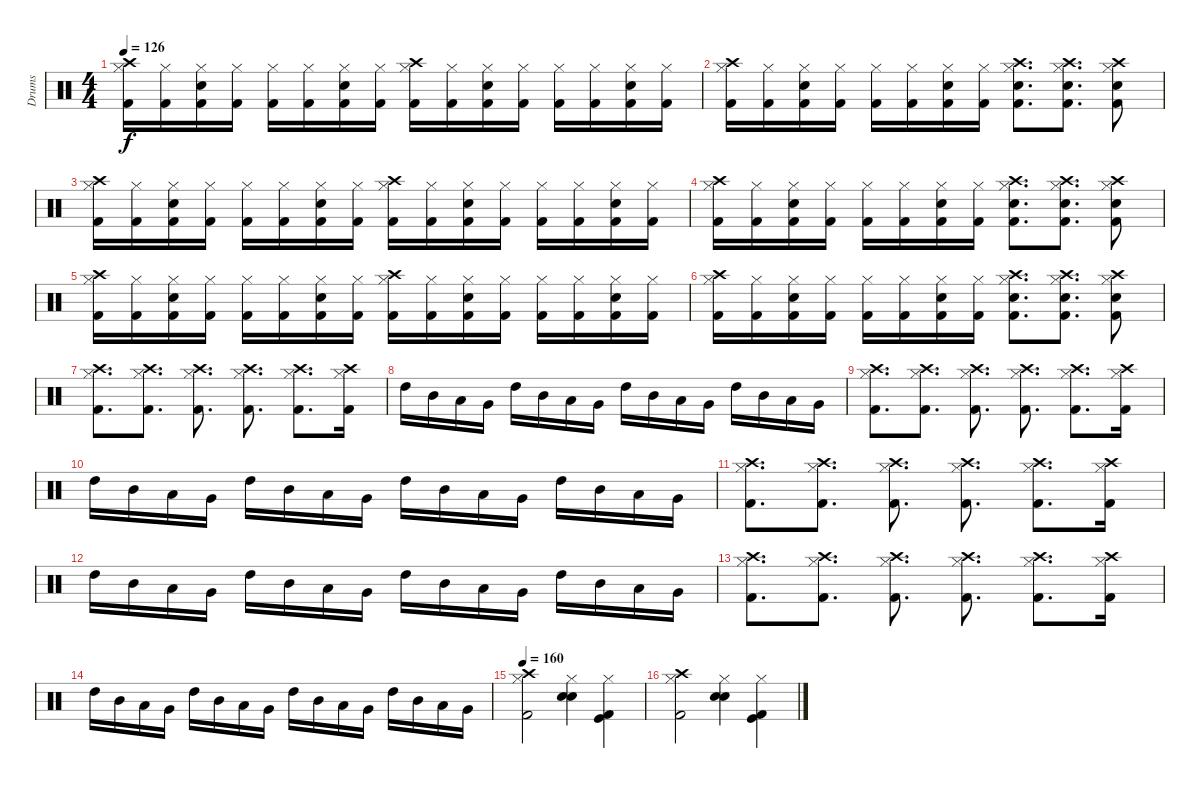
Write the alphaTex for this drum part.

\track ("Drums" "Drums") {instrument percussion}
\staff {score}
\articulation defaults
\ts (4 4)
\tempo 126
\clef neutral
\ks c
("Crash high (hit)" "Hi-Hat (closed)" "Kick (hit) 2").16{dy f} ("Hi-Hat (closed)" "Kick (hit) 2").16 ("Hi-Hat (closed)" "Kick (hit) 2" "Electric Snare (hit)").16 ("Hi-Hat (closed)" "Kick (hit) 2").16 ("Hi-Hat (closed)" "Kick (hit) 2").16 ("Hi-Hat (closed)" "Kick (hit) 2").16 ("Hi-Hat (closed)" "Kick (hit) 2" "Electric Snare (hit)").16 ("Hi-Hat (closed)" "Kick (hit) 2").16 ("Crash high (hit)" "Hi-Hat (closed)" "Kick (hit) 2").16 ("Hi-Hat (closed)" "Kick (hit) 2").16 ("Hi-Hat (closed)" "Kick (hit) 2" "Electric Snare (hit)").16 ("Hi-Hat (closed)" "Kick (hit) 2").16 ("Hi-Hat (closed)" "Kick (hit) 2").16 ("Hi-Hat (closed)" "Kick (hit) 2").16 ("Hi-Hat (closed)" "Kick (hit) 2" "Electric Snare (hit)").16 ("Hi-Hat (closed)" "Kick (hit) 2").16 |
("Crash high (hit)" "Hi-Hat (closed)" "Kick (hit) 2").16 ("Hi-Hat (closed)" "Kick (hit) 2").16 ("Hi-Hat (closed)" "Kick (hit) 2" "Electric Snare (hit)").16 ("Hi-Hat (closed)" "Kick (hit) 2").16 ("Hi-Hat (closed)" "Kick (hit) 2").16 ("Hi-Hat (closed)" "Kick (hit) 2").16 ("Hi-Hat (closed)" "Kick (hit) 2" "Electric Snare (hit)").16 ("Hi-Hat (closed)" "Kick (hit) 2").16 ("Crash high (hit)" "Hi-Hat (closed)" "Electric Snare (hit)" "Kick (hit) 2").8{d} ("Crash high (hit)" "Hi-Hat (closed)" "Electric Snare (hit)" "Kick (hit) 2").8{d} ("Crash high (hit)" "Hi-Hat (closed)" "Electric Snare (hit)" "Kick (hit) 2").8 |
("Crash high (hit)" "Hi-Hat (closed)" "Kick (hit) 2").16 ("Hi-Hat (closed)" "Kick (hit) 2").16 ("Hi-Hat (closed)" "Kick (hit) 2" "Electric Snare (hit)").16 ("Hi-Hat (closed)" "Kick (hit) 2").16 ("Hi-Hat (closed)" "Kick (hit) 2").16 ("Hi-Hat (closed)" "Kick (hit) 2").16 ("Hi-Hat (closed)" "Kick (hit) 2" "Electric Snare (hit)").16 ("Hi-Hat (closed)" "Kick (hit) 2").16 ("Crash high (hit)" "Hi-Hat (closed)" "Kick (hit) 2").16 ("Hi-Hat (closed)" "Kick (hit) 2").16 ("Hi-Hat (closed)" "Kick (hit) 2" "Electric Snare (hit)").16 ("Hi-Hat (closed)" "Kick (hit) 2").16 ("Hi-Hat (closed)" "Kick (hit) 2").16 ("Hi-Hat (closed)" "Kick (hit) 2").16 ("Hi-Hat (closed)" "Kick (hit) 2" "Electric Snare (hit)").16 ("Hi-Hat (closed)" "Kick (hit) 2").16 |
("Crash high (hit)" "Hi-Hat (closed)" "Kick (hit) 2").16 ("Hi-Hat (closed)" "Kick (hit) 2").16 ("Hi-Hat (closed)" "Kick (hit) 2" "Electric Snare (hit)").16 ("Hi-Hat (closed)" "Kick (hit) 2").16 ("Hi-Hat (closed)" "Kick (hit) 2").16 ("Hi-Hat (closed)" "Kick (hit) 2").16 ("Hi-Hat (closed)" "Kick (hit) 2" "Electric Snare (hit)").16 ("Hi-Hat (closed)" "Kick (hit) 2").16 ("Crash high (hit)" "Hi-Hat (closed)" "Electric Snare (hit)" "Kick (hit) 2").8{d} ("Crash high (hit)" "Hi-Hat (closed)" "Electric Snare (hit)" "Kick (hit) 2").8{d} ("Crash high (hit)" "Hi-Hat (closed)" "Electric Snare (hit)" "Kick (hit) 2").8 |
("Crash high (hit)" "Hi-Hat (closed)" "Kick (hit) 2").16 ("Hi-Hat (closed)" "Kick (hit) 2").16 ("Hi-Hat (closed)" "Kick (hit) 2" "Electric Snare (hit)").16 ("Hi-Hat (closed)" "Kick (hit) 2").16 ("Hi-Hat (closed)" "Kick (hit) 2").16 ("Hi-Hat (closed)" "Kick (hit) 2").16 ("Hi-Hat (closed)" "Kick (hit) 2" "Electric Snare (hit)").16 ("Hi-Hat (closed)" "Kick (hit) 2").16 ("Crash high (hit)" "Hi-Hat (closed)" "Kick (hit) 2").16 ("Hi-Hat (closed)" "Kick (hit) 2").16 ("Hi-Hat (closed)" "Kick (hit) 2" "Electric Snare (hit)").16 ("Hi-Hat (closed)" "Kick (hit) 2").16 ("Hi-Hat (closed)" "Kick (hit) 2").16 ("Hi-Hat (closed)" "Kick (hit) 2").16 ("Hi-Hat (closed)" "Kick (hit) 2" "Electric Snare (hit)").16 ("Hi-Hat (closed)" "Kick (hit) 2").16 |
("Crash high (hit)" "Hi-Hat (closed)" "Kick (hit) 2").16 ("Hi-Hat (closed)" "Kick (hit) 2").16 ("Hi-Hat (closed)" "Kick (hit) 2" "Electric Snare (hit)").16 ("Hi-Hat (closed)" "Kick (hit) 2").16 ("Hi-Hat (closed)" "Kick (hit) 2").16 ("Hi-Hat (closed)" "Kick (hit) 2").16 ("Hi-Hat (closed)" "Kick (hit) 2" "Electric Snare (hit)").16 ("Hi-Hat (closed)" "Kick (hit) 2").16 ("Crash high (hit)" "Hi-Hat (closed)" "Electric Snare (hit)" "Kick (hit) 2").8{d} ("Crash high (hit)" "Hi-Hat (closed)" "Electric Snare (hit)" "Kick (hit) 2").8{d} ("Crash high (hit)" "Hi-Hat (closed)" "Electric Snare (hit)" "Kick (hit) 2").8 |
("Crash high (hit)" "Hi-Hat (closed)" "Kick (hit) 2").8{d} ("Crash high (hit)" "Hi-Hat (closed)" "Kick (hit) 2").8{d} ("Crash high (hit)" "Hi-Hat (closed)" "Kick (hit) 2").8{d} ("Crash high (hit)" "Hi-Hat (closed)" "Kick (hit) 2").8{d} ("Crash high (hit)" "Hi-Hat (closed)" "Kick (hit) 2").8{d} ("Crash high (hit)" "Hi-Hat (closed)" "Kick (hit) 2").16 |
"High Tom (hit)".16 "Mid Tom (hit)".16 "Low Tom (hit)".16 "Very Low Tom (hit)".16 "High Tom (hit)".16 "Mid Tom (hit)".16 "Low Tom (hit)".16 "Very Low Tom (hit)".16 "High Tom (hit)".16 "Mid Tom (hit)".16 "Low Tom (hit)".16 "Very Low Tom (hit)".16 "High Tom (hit)".16 "Mid Tom (hit)".16 "Low Tom (hit)".16 "Very Low Tom (hit)".16 |
("Crash high (hit)" "Hi-Hat (closed)" "Kick (hit) 2").8{d} ("Crash high (hit)" "Hi-Hat (closed)" "Kick (hit) 2").8{d} ("Crash high (hit)" "Hi-Hat (closed)" "Kick (hit) 2").8{d} ("Crash high (hit)" "Hi-Hat (closed)" "Kick (hit) 2").8{d} ("Crash high (hit)" "Hi-Hat (closed)" "Kick (hit) 2").8{d} ("Crash high (hit)" "Hi-Hat (closed)" "Kick (hit) 2").16 |
"High Tom (hit)".16 "Mid Tom (hit)".16 "Low Tom (hit)".16 "Very Low Tom (hit)".16 "High Tom (hit)".16 "Mid Tom (hit)".16 "Low Tom (hit)".16 "Very Low Tom (hit)".16 "High Tom (hit)".16 "Mid Tom (hit)".16 "Low Tom (hit)".16 "Very Low Tom (hit)".16 "High Tom (hit)".16 "Mid Tom (hit)".16 "Low Tom (hit)".16 "Very Low Tom (hit)".16 |
("Crash high (hit)" "Hi-Hat (closed)" "Kick (hit) 2").8{d} ("Crash high (hit)" "Hi-Hat (closed)" "Kick (hit) 2").8{d} ("Crash high (hit)" "Hi-Hat (closed)" "Kick (hit) 2").8{d} ("Crash high (hit)" "Hi-Hat (closed)" "Kick (hit) 2").8{d} ("Crash high (hit)" "Hi-Hat (closed)" "Kick (hit) 2").8{d} ("Crash high (hit)" "Hi-Hat (closed)" "Kick (hit) 2").16 |
"High Tom (hit)".16 "Mid Tom (hit)".16 "Low Tom (hit)".16 "Very Low Tom (hit)".16 "High Tom (hit)".16 "Mid Tom (hit)".16 "Low Tom (hit)".16 "Very Low Tom (hit)".16 "High Tom (hit)".16 "Mid Tom (hit)".16 "Low Tom (hit)".16 "Very Low Tom (hit)".16 "High Tom (hit)".16 "Mid Tom (hit)".16 "Low Tom (hit)".16 "Very Low Tom (hit)".16 |
("Crash high (hit)" "Hi-Hat (closed)" "Kick (hit) 2").8{d} ("Crash high (hit)" "Hi-Hat (closed)" "Kick (hit) 2").8{d} ("Crash high (hit)" "Hi-Hat (closed)" "Kick (hit) 2").8{d} ("Crash high (hit)" "Hi-Hat (closed)" "Kick (hit) 2").8{d} ("Crash high (hit)" "Hi-Hat (closed)" "Kick (hit) 2").8{d} ("Crash high (hit)" "Hi-Hat (closed)" "Kick (hit) 2").16 |
"High Tom (hit)".16 "Mid Tom (hit)".16 "Low Tom (hit)".16 "Very Low Tom (hit)".16 "High Tom (hit)".16 "Mid Tom (hit)".16 "Low Tom (hit)".16 "Very Low Tom (hit)".16 "High Tom (hit)".16 "Mid Tom (hit)".16 "Low Tom (hit)".16 "Very Low Tom (hit)".16 "High Tom (hit)".16 "Mid Tom (hit)".16 "Low Tom (hit)".16 "Very Low Tom (hit)".16 |
\tempo 160
("Crash high (hit)" "Hi-Hat (closed)" "Kick (hit) 2").2 ("Hi-Hat (closed)" "Snare (hit) 2" "Electric Snare (hit)").4 ("Hi-Hat (closed)" "Kick (hit) 2" "Kick (hit)").4 |
("Crash high (hit)" "Hi-Hat (closed)" "Kick (hit) 2").2 ("Hi-Hat (closed)" "Snare (hit) 2" "Electric Snare (hit)").4 ("Hi-Hat (closed)" "Kick (hit) 2" "Kick (hit)").4
